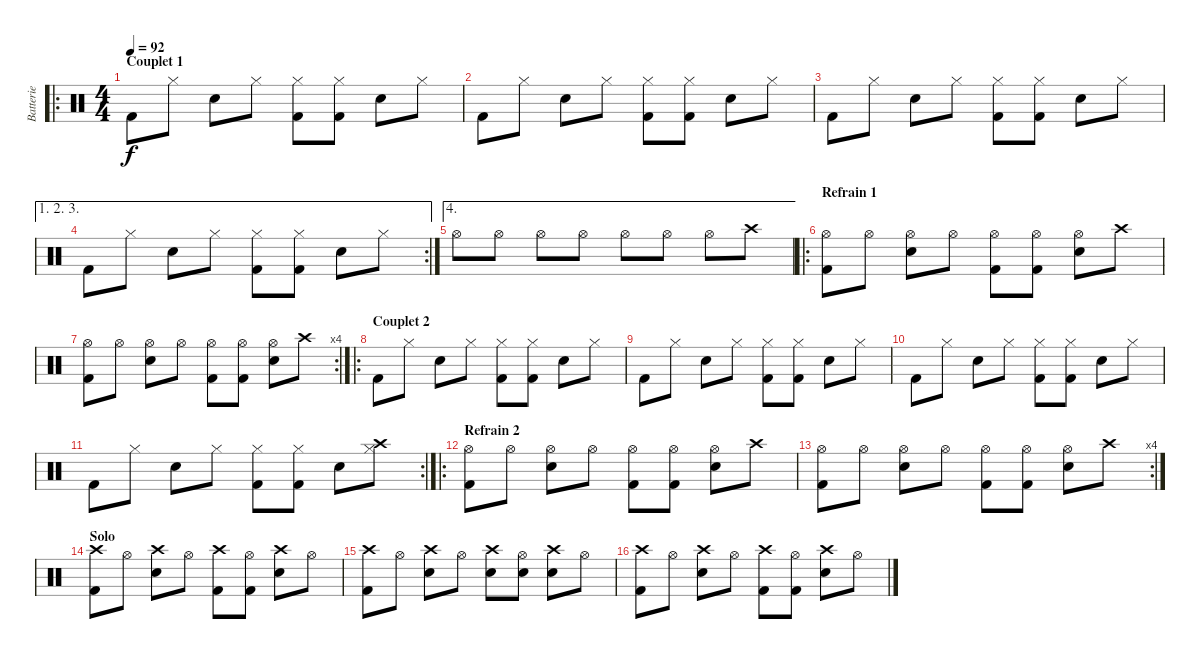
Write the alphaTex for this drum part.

\track ("Batterie" "Batterie") {instrument percussion}
\staff {score}
\articulation defaults
\ro
\ts (4 4)
\section ("" "Couplet 1")
\tempo 92
\clef neutral
\ks c "Kick (hit) 2".8{dy f} "Hi-Hat (closed)".8 "Electric Snare (hit)".8 "Hi-Hat (closed)".8
("Hi-Hat (closed)" "Kick (hit) 2").8 ("Hi-Hat (closed)" "Kick (hit) 2").8 "Electric Snare (hit)".8 "Hi-Hat (closed)".8 |
"Kick (hit) 2".8 "Hi-Hat (closed)".8 "Electric Snare (hit)".8 "Hi-Hat (closed)".8 ("Hi-Hat (closed)" "Kick (hit) 2").8 ("Hi-Hat (closed)" "Kick (hit) 2").8 "Electric Snare (hit)".8 "Hi-Hat (closed)".8 |
"Kick (hit) 2".8 "Hi-Hat (closed)".8 "Electric Snare (hit)".8 "Hi-Hat (closed)".8 ("Hi-Hat (closed)" "Kick (hit) 2").8 ("Hi-Hat (closed)" "Kick (hit) 2").8 "Electric Snare (hit)".8 "Hi-Hat (closed)".8 |
\ae (1 2 3)
\rc 2 "Kick (hit) 2".8 "Hi-Hat (closed)".8 "Electric Snare (hit)".8 "Hi-Hat (closed)".8
("Hi-Hat (closed)" "Kick (hit) 2").8 ("Hi-Hat (closed)" "Kick (hit) 2").8 "Electric Snare (hit)".8 "Hi-Hat (closed)".8 |
\ae 4 "Hi-Hat (open)".8 "Hi-Hat (open)".8 "Hi-Hat (open)".8 "Hi-Hat (open)".8 "Hi-Hat (open)".8 "Hi-Hat (open)".8 "Hi-Hat (open)".8 "Crash high (hit)".8
|
\ro
\section ("" "Refrain 1")
("Hi-Hat (open)" "Kick (hit) 2").8 "Hi-Hat (open)".8 ("Hi-Hat (open)" "Electric Snare (hit)").8 "Hi-Hat (open)".8 ("Hi-Hat (open)" "Kick (hit) 2").8 ("Hi-Hat (open)" "Kick (hit) 2").8 ("Hi-Hat (open)" "Electric Snare (hit)").8 "Crash high (hit)".8 |
\rc 4
("Hi-Hat (open)" "Kick (hit) 2").8 "Hi-Hat (open)".8 ("Hi-Hat (open)" "Electric Snare (hit)").8 "Hi-Hat (open)".8 ("Hi-Hat (open)" "Kick (hit) 2").8 ("Hi-Hat (open)" "Kick (hit) 2").8 ("Hi-Hat (open)" "Electric Snare (hit)").8 "Crash high (hit)".8 |
\ro
\section ("" "Couplet 2")
"Kick (hit) 2".8 "Hi-Hat (closed)".8 "Electric Snare (hit)".8 "Hi-Hat (closed)".8 ("Hi-Hat (closed)" "Kick (hit) 2").8 ("Hi-Hat (closed)" "Kick (hit) 2").8 "Electric Snare (hit)".8 "Hi-Hat (closed)".8 |
"Kick (hit) 2".8 "Hi-Hat (closed)".8 "Electric Snare (hit)".8 "Hi-Hat (closed)".8 ("Hi-Hat (closed)" "Kick (hit) 2").8 ("Hi-Hat (closed)" "Kick (hit) 2").8 "Electric Snare (hit)".8 "Hi-Hat (closed)".8 |
"Kick (hit) 2".8 "Hi-Hat (closed)".8 "Electric Snare (hit)".8 "Hi-Hat (closed)".8 ("Hi-Hat (closed)" "Kick (hit) 2").8 ("Hi-Hat (closed)" "Kick (hit) 2").8 "Electric Snare (hit)".8 "Hi-Hat (closed)".8 |
\rc 2 "Kick (hit) 2".8 "Hi-Hat (closed)".8 "Electric Snare (hit)".8 "Hi-Hat (closed)".8
("Hi-Hat (closed)" "Kick (hit) 2").8 ("Hi-Hat (closed)" "Kick (hit) 2").8 "Electric Snare (hit)".8 ("Crash high (hit)" "Hi-Hat (closed)").8 |
\ro
\section ("" "Refrain 2")
("Hi-Hat (open)" "Kick (hit) 2").8 "Hi-Hat (open)".8 ("Hi-Hat (open)" "Electric Snare (hit)").8 "Hi-Hat (open)".8 ("Hi-Hat (open)" "Kick (hit) 2").8 ("Hi-Hat (open)" "Kick (hit) 2").8 ("Hi-Hat (open)" "Electric Snare (hit)").8 "Crash high (hit)".8 |
\rc 4
("Hi-Hat (open)" "Kick (hit) 2").8 "Hi-Hat (open)".8 ("Hi-Hat (open)" "Electric Snare (hit)").8 "Hi-Hat (open)".8 ("Hi-Hat (open)" "Kick (hit) 2").8 ("Hi-Hat (open)" "Kick (hit) 2").8 ("Hi-Hat (open)" "Electric Snare (hit)").8 "Crash high (hit)".8 |
\section ("" "Solo")
("Crash high (hit)" "Kick (hit) 2").8 "Hi-Hat (open)".8 ("Crash high (hit)" "Electric Snare (hit)").8 "Hi-Hat (open)".8 ("Crash high (hit)" "Kick (hit) 2").8 ("Hi-Hat (open)" "Kick (hit) 2").8 ("Crash high (hit)" "Electric Snare (hit)").8 "Hi-Hat (open)".8 |
("Crash high (hit)" "Kick (hit) 2").8 "Hi-Hat (open)".8 ("Crash high (hit)" "Electric Snare (hit)").8 "Hi-Hat (open)".8 ("Crash high (hit)" "Electric Snare (hit)").8 ("Hi-Hat (open)" "Electric Snare (hit)").8 ("Crash high (hit)" "Electric Snare (hit)").8 "Hi-Hat (open)".8 |
("Crash high (hit)" "Kick (hit) 2").8 "Hi-Hat (open)".8 ("Crash high (hit)" "Electric Snare (hit)").8 "Hi-Hat (open)".8 ("Crash high (hit)" "Kick (hit) 2").8 ("Hi-Hat (open)" "Kick (hit) 2").8 ("Crash high (hit)" "Electric Snare (hit)").8 "Hi-Hat (open)".8
